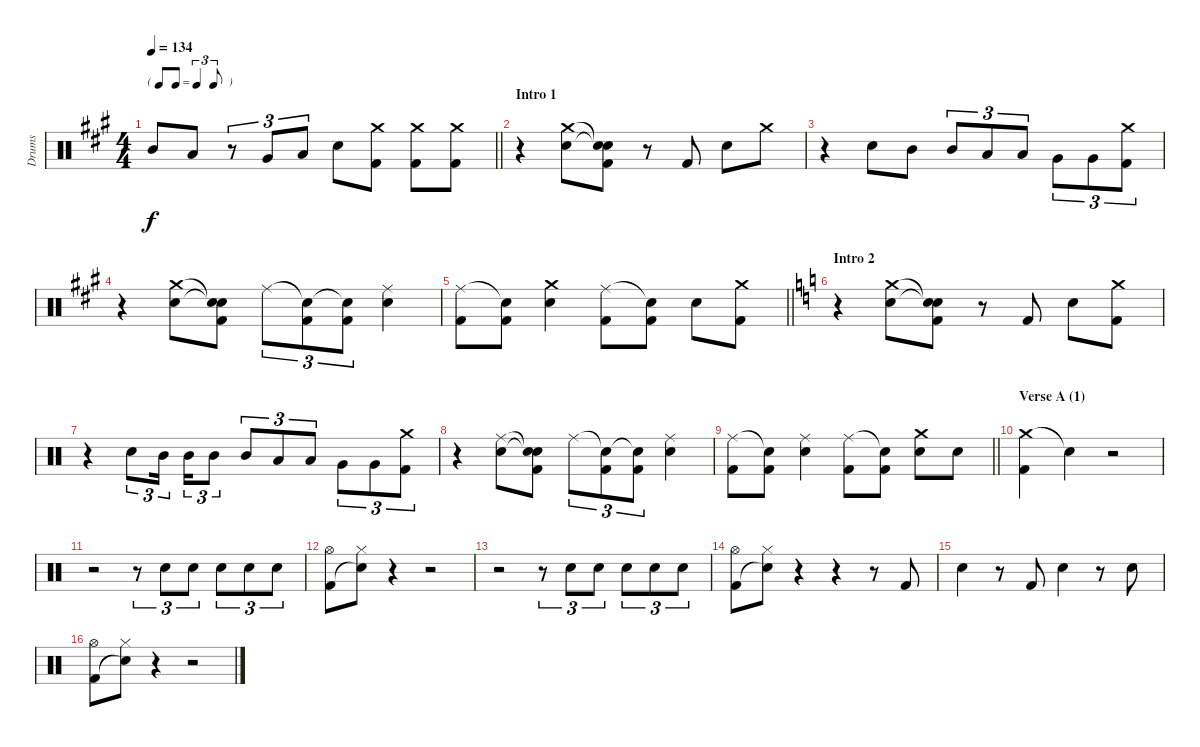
\track ("Drums" "Drums") {instrument percussion}
\staff {score}
\articulation defaults
\ts (4 4)
\tf triplet8th
\tempo 134
\clef neutral
\barLineRight lightlight
\ks a "Mid Tom (hit)".8{dy f} "Low Tom (hit)".8
r.8{tu (3 2)} "Very Low Tom (hit)".8{tu (3 2)} "Low Floor Tom (hit)".8{tu (3 2)} "Electric Snare (hit)".8 ("Crash medium (hit)" "Kick (hit) 2").8 ("Crash medium (hit)" "Kick (hit) 2").8 ("Crash medium (hit)" "Kick (hit) 2").8 |
\section ("" "Intro 1")
r.4 ("Crash medium (hit)" "Electric Snare (hit)").8 ("Snare (hit)"{t} "Snare (hit)"{t} "Kick (hit) 2").8 r.8 "Kick (hit) 2".8 "Electric Snare (hit)".8 "Crash medium (hit)".8 |
r.4 "Electric Snare (hit)".8 "Mid Tom (hit)".8 "Mid Tom (hit)".8{tu (3 2)} "Low Tom (hit)".8{tu (3 2)} "Low Tom (hit)".8{tu (3 2)} "Very Low Tom (hit)".8{tu (3 2)} "Very Low Tom (hit)".8{tu (3 2)} ("Crash medium (hit)" "Kick (hit) 2").8{tu (3 2)} |
r.4 ("Crash medium (hit)" "Electric Snare (hit)").8 ("Snare (hit)"{t} "Snare (hit)"{t} "Kick (hit) 2").8 "Ride (middle)".8{tu (3 2)} ("Snare (hit)"{t} "Kick (hit) 2").8{tu (3 2)} ("Snare (hit)"{t} "Kick (hit) 2").8{tu (3 2)} ("Ride (middle)" "Electric Snare (hit)").4 |
\barLineRight lightlight
("Ride (middle)" "Kick (hit) 2").8 ("Snare (hit)"{t} "Kick (hit) 2").8 ("Crash medium (hit)" "Electric Snare (hit)").4 ("Ride (middle)" "Kick (hit) 2").8 ("Snare (hit)"{t} "Kick (hit) 2").8 "Electric Snare (hit)".8 ("Crash medium (hit)" "Kick (hit) 2").8 |
\section ("" "Intro 2")
\ks c
r.4 ("Crash medium (hit)" "Electric Snare (hit)").8 ("Snare (hit)"{t} "Snare (hit)"{t} "Kick (hit) 2").8 r.8 "Kick (hit) 2".8 "Electric Snare (hit)".8 ("Crash medium (hit)" "Kick (hit) 2").8 |
r.4 "Electric Snare (hit)".8{tu (3 2)} "Mid Tom (hit)".16{tu (3 2)} "Mid Tom (hit)".16{tu (3 2)} "Mid Tom (hit)".8{tu (3 2)} "Mid Tom (hit)".8{tu (3 2)} "Low Tom (hit)".8{tu (3 2)} "Low Tom (hit)".8{tu (3 2)} "Very Low Tom (hit)".8{tu (3 2)} "Very Low Tom (hit)".8{tu (3 2)} ("Crash medium (hit)" "Kick (hit) 2").8{tu (3 2)} |
r.4 ("Ride (middle)" "Electric Snare (hit)").8 ("Snare (hit)"{t} "Snare (hit)"{t} "Kick (hit) 2").8 "Ride (middle)".8{tu (3 2)} ("Snare (hit)"{t} "Kick (hit) 2").8{tu (3 2)} ("Snare (hit)"{t} "Kick (hit) 2").8{tu (3 2)} ("Ride (middle)" "Electric Snare (hit)").4 |
\barLineRight lightlight
("Ride (middle)" "Kick (hit) 2").8 ("Snare (hit)"{t} "Kick (hit) 2").8 ("Ride (middle)" "Electric Snare (hit)").4 ("Ride (middle)" "Kick (hit) 2").8 ("Snare (hit)"{t} "Kick (hit) 2").8 ("Crash medium (hit)" "Electric Snare (hit)").8 "Electric Snare (hit)".8 |
\section ("" "Verse A (1)")
("Crash medium (hit)" "Kick (hit) 2").4 "Snare (hit)"{t}.4 r.2 |
r.2 r.8{tu (3 2)} "Electric Snare (hit)".8{tu (3 2)} "Electric Snare (hit)".8{tu (3 2)} "Electric Snare (hit)".8{tu (3 2)} "Electric Snare (hit)".8{tu (3 2)} "Electric Snare (hit)".8{tu (3 2)} |
("Hi-Hat (open)" "Kick (hit) 2").8 ("Hi-Hat (closed)" "Snare (hit)"{t}).8 r.4 r.2 |
r.2 r.8{tu (3 2)} "Electric Snare (hit)".8{tu (3 2)} "Electric Snare (hit)".8{tu (3 2)} "Electric Snare (hit)".8{tu (3 2)} "Electric Snare (hit)".8{tu (3 2)} "Electric Snare (hit)".8{tu (3 2)} |
("Hi-Hat (open)" "Kick (hit) 2").8 ("Hi-Hat (closed)" "Snare (hit)"{t}).8 r.4 r.4 r.8 "Kick (hit) 2".8 |
"Electric Snare (hit)".4 r.8 "Kick (hit) 2".8 "Electric Snare (hit)".4 r.8 "Electric Snare (hit)".8 |
("Hi-Hat (open)" "Kick (hit) 2").8 ("Hi-Hat (closed)" "Snare (hit)"{t}).8 r.4 r.2
